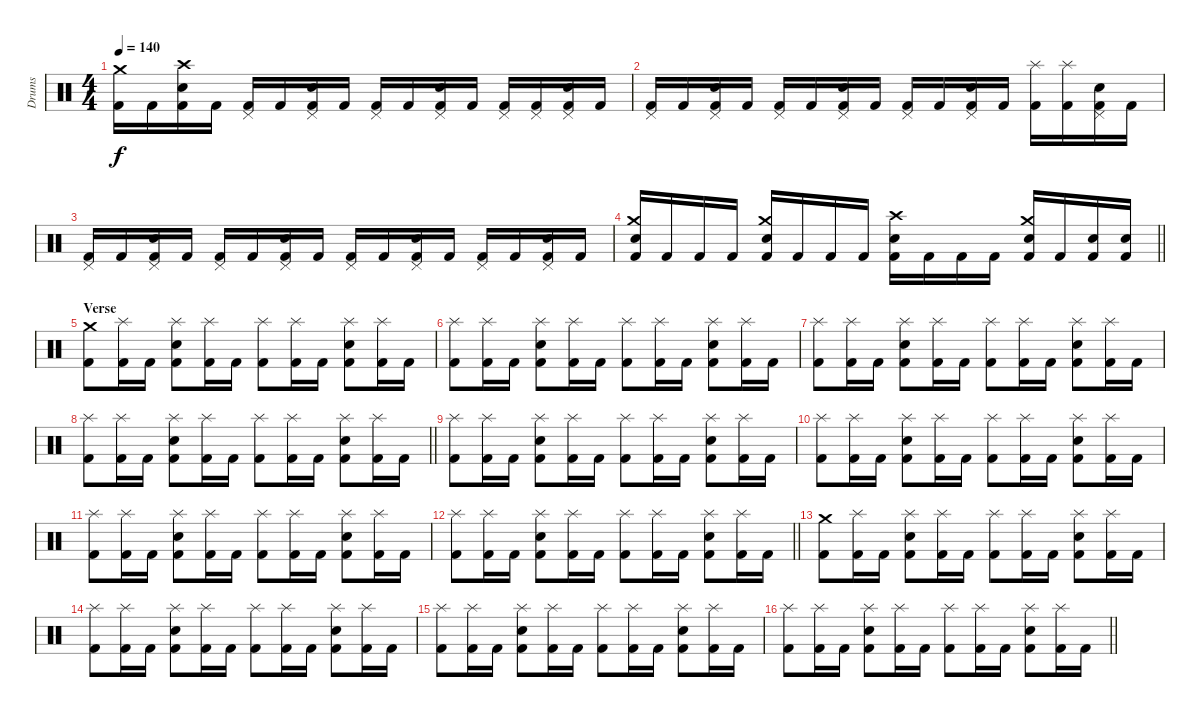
\track ("Drums" "Drums") {instrument percussion}
\staff {score}
\articulation defaults
\ts (4 4)
\section ("" "")
\tempo 140
\clef neutral
\ks c
("Kick (hit) 2" "Crash medium (hit)").16{dy f} "Kick (hit) 2".16 ("Kick (hit) 2" "Snare (hit) 2" "Crash high (hit)").16 "Kick (hit) 2".16 ("Kick (hit) 2" "Pedal Hi-Hat (hit)").16 "Kick (hit) 2".16 ("Kick (hit) 2" "Snare (hit) 2" "Pedal Hi-Hat (hit)").16 "Kick (hit) 2".16 ("Kick (hit) 2" "Pedal Hi-Hat (hit)").16 "Kick (hit) 2".16 ("Kick (hit) 2" "Snare (hit) 2" "Pedal Hi-Hat (hit)").16 "Kick (hit) 2".16 ("Kick (hit) 2" "Pedal Hi-Hat (hit)").16 ("Kick (hit) 2" "Pedal Hi-Hat (hit)").16 ("Kick (hit) 2" "Snare (hit) 2" "Pedal Hi-Hat (hit)").16 "Kick (hit) 2".16 |
("Kick (hit) 2" "Pedal Hi-Hat (hit)").16 "Kick (hit) 2".16 ("Kick (hit) 2" "Snare (hit) 2" "Pedal Hi-Hat (hit)").16 "Kick (hit) 2".16 ("Kick (hit) 2" "Pedal Hi-Hat (hit)").16 "Kick (hit) 2".16 ("Kick (hit) 2" "Snare (hit) 2" "Pedal Hi-Hat (hit)").16 "Kick (hit) 2".16 ("Kick (hit) 2" "Pedal Hi-Hat (hit)").16 "Kick (hit) 2".16 ("Kick (hit) 2" "Snare (hit) 2" "Pedal Hi-Hat (hit)").16 "Kick (hit) 2".16 ("Kick (hit) 2" "Splash (hit)").16 ("Kick (hit) 2" "Splash (hit)").16 ("Kick (hit) 2" "Snare (hit) 2" "Pedal Hi-Hat (hit)").16 "Kick (hit) 2".16 |
("Kick (hit) 2" "Pedal Hi-Hat (hit)").16 "Kick (hit) 2".16 ("Kick (hit) 2" "Snare (hit) 2" "Pedal Hi-Hat (hit)").16 "Kick (hit) 2".16 ("Kick (hit) 2" "Pedal Hi-Hat (hit)").16 "Kick (hit) 2".16 ("Kick (hit) 2" "Snare (hit) 2" "Pedal Hi-Hat (hit)").16 "Kick (hit) 2".16 ("Kick (hit) 2" "Pedal Hi-Hat (hit)").16 "Kick (hit) 2".16 ("Kick (hit) 2" "Snare (hit) 2" "Pedal Hi-Hat (hit)").16 "Kick (hit) 2".16 ("Kick (hit) 2" "Pedal Hi-Hat (hit)").16 "Kick (hit) 2".16 ("Kick (hit) 2" "Snare (hit) 2" "Pedal Hi-Hat (hit)").16 "Kick (hit) 2".16 |
\barLineRight lightlight
("Kick (hit) 2" "Snare (hit) 2" "Crash medium (hit)").16 "Kick (hit) 2".16 "Kick (hit) 2".16 "Kick (hit) 2".16 ("Kick (hit) 2" "Snare (hit) 2" "Crash medium (hit)").16 "Kick (hit) 2".16 "Kick (hit) 2".16 "Kick (hit) 2".16 ("Kick (hit) 2" "Snare (hit) 2" "Crash high (hit)").16 "Kick (hit) 2".16 "Kick (hit) 2".16 "Kick (hit) 2".16 ("Kick (hit) 2" "Snare (hit) 2" "Crash medium (hit)").16 "Kick (hit) 2".16 ("Kick (hit) 2" "Snare (hit) 2").16 ("Kick (hit) 2" "Snare (hit) 2").16 |
\section ("" "Verse")
("Kick (hit) 2" "Crash medium (hit)").8 ("Kick (hit) 2" "Splash (hit)").16 "Kick (hit) 2".16 ("Kick (hit) 2" "Snare (hit) 2" "Splash (hit)").8 ("Kick (hit) 2" "Splash (hit)").16 "Kick (hit) 2".16 ("Kick (hit) 2" "Splash (hit)").8 ("Kick (hit) 2" "Splash (hit)").16 "Kick (hit) 2".16 ("Kick (hit) 2" "Snare (hit) 2" "Splash (hit)").8 ("Kick (hit) 2" "Splash (hit)").16 "Kick (hit) 2".16 |
("Kick (hit) 2" "Splash (hit)").8 ("Kick (hit) 2" "Splash (hit)").16 "Kick (hit) 2".16 ("Kick (hit) 2" "Snare (hit) 2" "Splash (hit)").8 ("Kick (hit) 2" "Splash (hit)").16 "Kick (hit) 2".16 ("Kick (hit) 2" "Splash (hit)").8 ("Kick (hit) 2" "Splash (hit)").16 "Kick (hit) 2".16 ("Kick (hit) 2" "Snare (hit) 2" "Splash (hit)").8 ("Kick (hit) 2" "Splash (hit)").16 "Kick (hit) 2".16 |
("Kick (hit) 2" "Splash (hit)").8 ("Kick (hit) 2" "Splash (hit)").16 "Kick (hit) 2".16 ("Kick (hit) 2" "Snare (hit) 2" "Splash (hit)").8 ("Kick (hit) 2" "Splash (hit)").16 "Kick (hit) 2".16 ("Kick (hit) 2" "Splash (hit)").8 ("Kick (hit) 2" "Splash (hit)").16 "Kick (hit) 2".16 ("Kick (hit) 2" "Snare (hit) 2" "Splash (hit)").8 ("Kick (hit) 2" "Splash (hit)").16 "Kick (hit) 2".16 |
\barLineRight lightlight
("Kick (hit) 2" "Splash (hit)").8 ("Kick (hit) 2" "Splash (hit)").16 "Kick (hit) 2".16 ("Kick (hit) 2" "Snare (hit) 2" "Splash (hit)").8 ("Kick (hit) 2" "Splash (hit)").16 "Kick (hit) 2".16 ("Kick (hit) 2" "Splash (hit)").8 ("Kick (hit) 2" "Splash (hit)").16 "Kick (hit) 2".16 ("Kick (hit) 2" "Snare (hit) 2" "Splash (hit)").8 ("Kick (hit) 2" "Splash (hit)").16 "Kick (hit) 2".16 |
\section ("" "")
("Kick (hit) 2" "Splash (hit)").8 ("Kick (hit) 2" "Splash (hit)").16 "Kick (hit) 2".16 ("Kick (hit) 2" "Snare (hit) 2" "Splash (hit)").8 ("Kick (hit) 2" "Splash (hit)").16 "Kick (hit) 2".16 ("Kick (hit) 2" "Splash (hit)").8 ("Kick (hit) 2" "Splash (hit)").16 "Kick (hit) 2".16 ("Kick (hit) 2" "Snare (hit) 2" "Splash (hit)").8 ("Kick (hit) 2" "Splash (hit)").16 "Kick (hit) 2".16 |
("Kick (hit) 2" "Splash (hit)").8 ("Kick (hit) 2" "Splash (hit)").16 "Kick (hit) 2".16 ("Kick (hit) 2" "Snare (hit) 2" "Splash (hit)").8 ("Kick (hit) 2" "Splash (hit)").16 "Kick (hit) 2".16 ("Kick (hit) 2" "Splash (hit)").8 ("Kick (hit) 2" "Splash (hit)").16 "Kick (hit) 2".16 ("Kick (hit) 2" "Snare (hit) 2" "Splash (hit)").8 ("Kick (hit) 2" "Splash (hit)").16 "Kick (hit) 2".16 |
("Kick (hit) 2" "Splash (hit)").8 ("Kick (hit) 2" "Splash (hit)").16 "Kick (hit) 2".16 ("Kick (hit) 2" "Snare (hit) 2" "Splash (hit)").8 ("Kick (hit) 2" "Splash (hit)").16 "Kick (hit) 2".16 ("Kick (hit) 2" "Splash (hit)").8 ("Kick (hit) 2" "Splash (hit)").16 "Kick (hit) 2".16 ("Kick (hit) 2" "Snare (hit) 2" "Splash (hit)").8 ("Kick (hit) 2" "Splash (hit)").16 "Kick (hit) 2".16 |
\barLineRight lightlight
("Kick (hit) 2" "Splash (hit)").8 ("Kick (hit) 2" "Splash (hit)").16 "Kick (hit) 2".16 ("Kick (hit) 2" "Snare (hit) 2" "Splash (hit)").8 ("Kick (hit) 2" "Splash (hit)").16 "Kick (hit) 2".16 ("Kick (hit) 2" "Splash (hit)").8 ("Kick (hit) 2" "Splash (hit)").16 "Kick (hit) 2".16 ("Kick (hit) 2" "Snare (hit) 2" "Splash (hit)").8 ("Kick (hit) 2" "Splash (hit)").16 "Kick (hit) 2".16 |
\section ("" "")
("Kick (hit) 2" "Crash medium (hit)").8 ("Kick (hit) 2" "Splash (hit)").16 "Kick (hit) 2".16 ("Kick (hit) 2" "Snare (hit) 2" "Splash (hit)").8 ("Kick (hit) 2" "Splash (hit)").16 "Kick (hit) 2".16 ("Kick (hit) 2" "Splash (hit)").8 ("Kick (hit) 2" "Splash (hit)").16 "Kick (hit) 2".16 ("Kick (hit) 2" "Snare (hit) 2" "Splash (hit)").8 ("Kick (hit) 2" "Splash (hit)").16 "Kick (hit) 2".16 |
("Kick (hit) 2" "Splash (hit)").8 ("Kick (hit) 2" "Splash (hit)").16 "Kick (hit) 2".16 ("Kick (hit) 2" "Snare (hit) 2" "Splash (hit)").8 ("Kick (hit) 2" "Splash (hit)").16 "Kick (hit) 2".16 ("Kick (hit) 2" "Splash (hit)").8 ("Kick (hit) 2" "Splash (hit)").16 "Kick (hit) 2".16 ("Kick (hit) 2" "Snare (hit) 2" "Splash (hit)").8 ("Kick (hit) 2" "Splash (hit)").16 "Kick (hit) 2".16 |
("Kick (hit) 2" "Splash (hit)").8 ("Kick (hit) 2" "Splash (hit)").16 "Kick (hit) 2".16 ("Kick (hit) 2" "Snare (hit) 2" "Splash (hit)").8 ("Kick (hit) 2" "Splash (hit)").16 "Kick (hit) 2".16 ("Kick (hit) 2" "Splash (hit)").8 ("Kick (hit) 2" "Splash (hit)").16 "Kick (hit) 2".16 ("Kick (hit) 2" "Snare (hit) 2" "Splash (hit)").8 ("Kick (hit) 2" "Splash (hit)").16 "Kick (hit) 2".16 |
\barLineRight lightlight
("Kick (hit) 2" "Splash (hit)").8 ("Kick (hit) 2" "Splash (hit)").16 "Kick (hit) 2".16 ("Kick (hit) 2" "Snare (hit) 2" "Splash (hit)").8 ("Kick (hit) 2" "Splash (hit)").16 "Kick (hit) 2".16 ("Kick (hit) 2" "Splash (hit)").8 ("Kick (hit) 2" "Splash (hit)").16 "Kick (hit) 2".16 ("Kick (hit) 2" "Snare (hit) 2" "Splash (hit)").8 ("Kick (hit) 2" "Splash (hit)").16 "Kick (hit) 2".16
